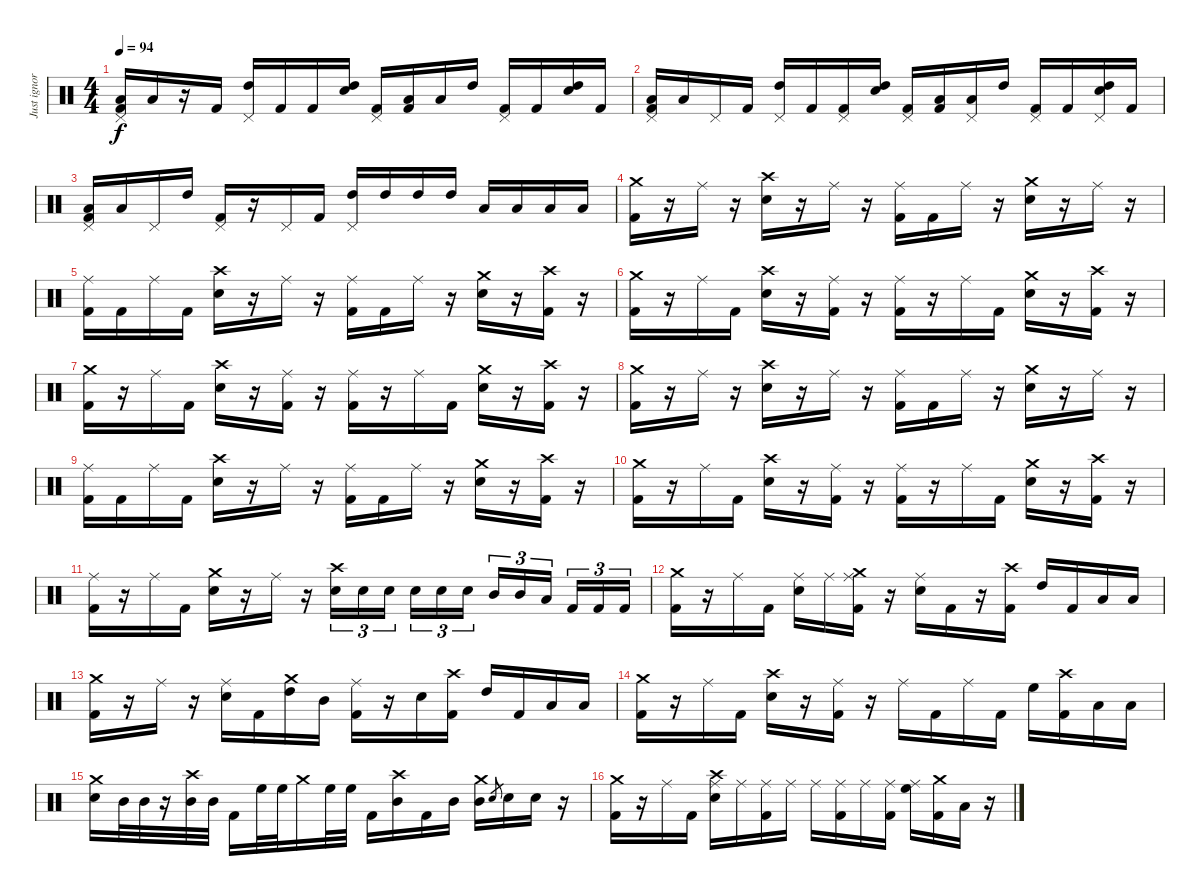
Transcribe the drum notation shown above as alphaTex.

\track ("Just ignore this track" "Just ignor") {instrument percussion}
\staff {score}
\articulation defaults
\ts (4 4)
\tempo 94
\clef neutral
\ks c
("Pedal Hi-Hat (hit)" "Low Floor Tom (hit)" "Kick (hit) 2").16{dy f} "Low Floor Tom (hit)".16 r.16 "Kick (hit) 2".16 ("Pedal Hi-Hat (hit)" "High Tom (hit)").16 "Kick (hit) 2".16 "Kick (hit) 2".16 ("High Tom (hit)" "Snare (hit) 2").16 ("Pedal Hi-Hat (hit)" "Kick (hit) 2").16 ("Low Floor Tom (hit)" "Kick (hit) 2").16 "Low Floor Tom (hit)".16 "High Tom (hit)".16 ("Pedal Hi-Hat (hit)" "Kick (hit) 2").16 "Kick (hit) 2".16 ("High Tom (hit)" "Snare (hit) 2").16 "Kick (hit) 2".16 |
("Pedal Hi-Hat (hit)" "Low Floor Tom (hit)" "Kick (hit) 2").16 "Low Floor Tom (hit)".16 "Pedal Hi-Hat (hit)".16 "Kick (hit) 2".16 ("Pedal Hi-Hat (hit)" "High Tom (hit)").16 "Kick (hit) 2".16 ("Pedal Hi-Hat (hit)" "Kick (hit) 2").16 ("High Tom (hit)" "Snare (hit) 2").16 ("Pedal Hi-Hat (hit)" "Kick (hit) 2").16 ("Low Floor Tom (hit)" "Kick (hit) 2").16 ("Pedal Hi-Hat (hit)" "Low Floor Tom (hit)").16 "High Tom (hit)".16 ("Pedal Hi-Hat (hit)" "Kick (hit) 2").16 "Kick (hit) 2".16 ("Pedal Hi-Hat (hit)" "High Tom (hit)" "Snare (hit) 2").16 "Kick (hit) 2".16 |
("Pedal Hi-Hat (hit)" "Low Floor Tom (hit)" "Kick (hit) 2").16 "Low Floor Tom (hit)".16 "Pedal Hi-Hat (hit)".16 "High Tom (hit)".16 ("Pedal Hi-Hat (hit)" "Kick (hit) 2").16 r.16 "Pedal Hi-Hat (hit)".16 "Kick (hit) 2".16 ("Pedal Hi-Hat (hit)" "High Tom (hit)").16 "High Tom (hit)".16 "High Tom (hit)".16 "High Tom (hit)".16 "Low Tom (hit)".16 "Low Tom (hit)".16 "Low Floor Tom (hit)".16 "Low Floor Tom (hit)".16 |
("Crash medium (hit)" "Kick (hit) 2").16 r.16 "Ride (middle)".16 r.16 ("Crash high (hit)" "Electric Snare (hit)").16 r.16 "Ride (middle)".16 r.16 ("Ride (middle)" "Kick (hit) 2").16 "Kick (hit) 2".16 "Ride (middle)".16 r.16 ("Crash medium (hit)" "Electric Snare (hit)").16 r.16 "Ride (middle)".16 r.16 |
("Ride (middle)" "Kick (hit) 2").16 "Kick (hit) 2".16 "Ride (middle)".16 "Kick (hit) 2".16 ("Crash high (hit)" "Electric Snare (hit)").16 r.16 "Ride (middle)".16 r.16 ("Ride (middle)" "Kick (hit) 2").16 "Kick (hit) 2".16 "Ride (middle)".16 r.16 ("Crash medium (hit)" "Electric Snare (hit)").16 r.16 ("Crash high (hit)" "Kick (hit) 2").16 r.16 |
("Crash medium (hit)" "Kick (hit) 2").16 r.16 "Ride (middle)".16 "Kick (hit) 2".16 ("Crash high (hit)" "Electric Snare (hit)").16 r.16 ("Ride (middle)" "Kick (hit) 2").16 r.16 ("Ride (middle)" "Kick (hit) 2").16 r.16 "Ride (middle)".16 "Kick (hit) 2".16 ("Crash medium (hit)" "Electric Snare (hit)").16 r.16 ("Crash high (hit)" "Kick (hit) 2").16 r.16 |
("Crash medium (hit)" "Kick (hit) 2").16 r.16 "Ride (middle)".16 "Kick (hit) 2".16 ("Crash high (hit)" "Electric Snare (hit)").16 r.16 ("Ride (middle)" "Kick (hit) 2").16 r.16 ("Ride (middle)" "Kick (hit) 2").16 r.16 "Ride (middle)".16 "Kick (hit) 2".16 ("Crash medium (hit)" "Electric Snare (hit)").16 r.16 ("Crash high (hit)" "Kick (hit) 2").16 r.16 |
("Crash medium (hit)" "Kick (hit) 2").16 r.16 "Ride (middle)".16 r.16 ("Crash high (hit)" "Electric Snare (hit)").16 r.16 "Ride (middle)".16 r.16 ("Ride (middle)" "Kick (hit) 2").16 "Kick (hit) 2".16 "Ride (middle)".16 r.16 ("Crash medium (hit)" "Electric Snare (hit)").16 r.16 "Ride (middle)".16 r.16 |
("Ride (middle)" "Kick (hit) 2").16 "Kick (hit) 2".16 "Ride (middle)".16 "Kick (hit) 2".16 ("Crash high (hit)" "Electric Snare (hit)").16 r.16 "Ride (middle)".16 r.16 ("Ride (middle)" "Kick (hit) 2").16 "Kick (hit) 2".16 "Ride (middle)".16 r.16 ("Crash medium (hit)" "Electric Snare (hit)").16 r.16 ("Crash high (hit)" "Kick (hit) 2").16 r.16 |
("Crash medium (hit)" "Kick (hit) 2").16 r.16 "Ride (middle)".16 "Kick (hit) 2".16 ("Crash high (hit)" "Electric Snare (hit)").16 r.16 ("Ride (middle)" "Kick (hit) 2").16 r.16 ("Ride (middle)" "Kick (hit) 2").16 r.16 "Ride (middle)".16 "Kick (hit) 2".16 ("Crash medium (hit)" "Electric Snare (hit)").16 r.16 ("Crash high (hit)" "Kick (hit) 2").16 r.16 |
("Ride (middle)" "Kick (hit) 2").16 r.16 "Ride (middle)".16 "Kick (hit) 2".16 ("Crash medium (hit)" "Electric Snare (hit)").16 r.16 "Ride (middle)".16 r.16 ("Crash high (hit)" "Electric Snare (hit)").16{tu (3 2)} "Electric Snare (hit)".16{tu (3 2)} "Electric Snare (hit)".16{tu (3 2)} "Electric Snare (hit)".16{tu (3 2)} "Electric Snare (hit)".16{tu (3 2)} "Electric Snare (hit)".16{tu (3 2)} "Mid Tom (hit)".16{tu (3 2)} "Mid Tom (hit)".16{tu (3 2)} "Low Tom (hit)".16{tu (3 2)} "Kick (hit) 2".16{tu (3 2)} "Kick (hit) 2".16{tu (3 2)} "Kick (hit) 2".16{tu (3 2)} |
("Crash medium (hit)" "Kick (hit) 2").16 r.16 "Ride (middle)".16 "Kick (hit) 2".16 ("Ride (middle)" "Electric Snare (hit)").16 "Ride (middle)".16 ("Crash medium (hit)" "Ride (middle)" "Kick (hit) 2").16 r.16 ("Ride (middle)" "Electric Snare (hit)").16 "Kick (hit) 2".16 r.16 ("Crash high (hit)" "Kick (hit) 2").16 "High Tom (hit)".16 "Kick (hit) 2".16 "Low Tom (hit)".16 "Low Tom (hit)".16 |
("Crash medium (hit)" "Kick (hit) 2").16 r.16 "Ride (middle)".16 r.16 ("Ride (middle)" "Electric Snare (hit)").16 "Kick (hit) 2".16 ("Crash medium (hit)" "High Tom (hit)").16 "Mid Tom (hit)".16 ("Ride (middle)" "Kick (hit) 2").16 r.16 "Electric Snare (hit)".16 ("Crash high (hit)" "Kick (hit) 2").16 "High Tom (hit)".16 "Kick (hit) 2".16 "Low Tom (hit)".16 "Low Tom (hit)".16 |
("Crash medium (hit)" "Kick (hit) 2").16 r.16 "Ride (middle)".16 "Kick (hit) 2".16 ("Crash high (hit)" "Electric Snare (hit)").16 r.16 ("Ride (middle)" "Kick (hit) 2").16 r.16 "Ride (middle)".16 "Kick (hit) 2".16 "Ride (middle)".16 "Kick (hit) 2".16 "High Floor Tom (hit)".16 ("Crash high (hit)" "Kick (hit) 2").16 "Low Floor Tom (hit)".16 "Low Floor Tom (hit)".16 |
("Crash medium (hit)" "Electric Snare (hit)").16 "Mid Tom (hit)".32 "Mid Tom (hit)".32 r.16 ("Crash high (hit)" "Mid Tom (hit)").32 "Mid Tom (hit)".32 "Kick (hit) 2".16 "High Floor Tom (hit)".32 "High Floor Tom (hit)".32 "Crash medium (hit)".16 "High Floor Tom (hit)".32 "High Floor Tom (hit)".32 "Kick (hit) 2".16 ("Crash high (hit)" "Mid Tom (hit)").16 "Kick (hit) 2".16 "Mid Tom (hit)".16 ("Crash medium (hit)" "Mid Tom (hit)").16 "Electric Snare (hit)".8{gr} "Electric Snare (hit)".16 "Electric Snare (hit)".16 r.16 |
("Crash medium (hit)" "Kick (hit) 2").16 r.16 "Ride (middle)".16 "Kick (hit) 2".16 ("Crash high (hit)" "Ride (middle)" "Electric Snare (hit)").16 "Ride (middle)".16 ("Ride (middle)" "Kick (hit) 2").16 "Ride (middle)".16 "Ride (middle)".16 ("Ride (middle)" "Kick (hit) 2").16 "Ride (middle)".16 ("Ride (middle)" "Kick (hit) 2").16 ("Ride (middle)" "High Floor Tom (hit)").16 ("Crash medium (hit)" "Kick (hit) 2").16 "Low Floor Tom (hit)".16 r.16
